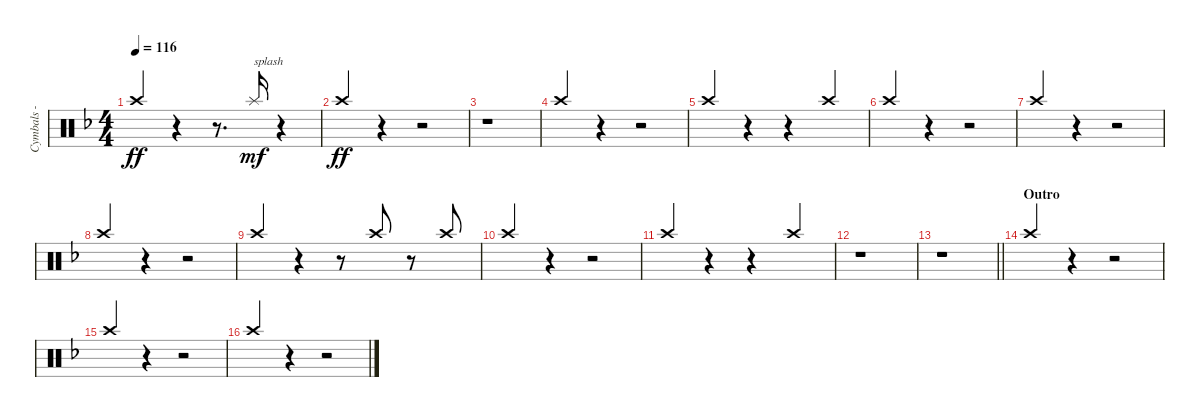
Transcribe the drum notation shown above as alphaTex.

\track ("Cymbals - crash" "Cymbals - ") {instrument percussion}
\staff {score}
\articulation defaults
\ts (4 4)
\tempo 116
\clef neutral
\ks f "Crash high (hit)".4{dy ff beam Up}
r.4 r.8{d} "Splash (hit)".16{txt "splash" dy mf beam Up} r.4 |
"Crash high (hit)".4{dy ff beam Up} r.4 r.2 |
r.1 |
"Crash high (hit)".4{beam Up} r.4 r.2 |
"Crash high (hit)".4{beam Up beam merge} r.4 r.4 "Crash high (hit)".4{beam Up} |
"Crash high (hit)".4{beam Up} r.4 r.2 |
"Crash high (hit)".4{beam Up} r.4 r.2 |
"Crash high (hit)".4{beam Up} r.4 r.2 |
"Crash high (hit)".4{beam Up} r.4 r.8 "Crash high (hit)".8{beam Up} r.8 "Crash high (hit)".8{beam Up} |
"Crash high (hit)".4{beam Up} r.4 r.2 |
"Crash high (hit)".4{beam Up beam merge} r.4 r.4 "Crash high (hit)".4{beam Up} |
r.1 |
\barLineRight lightlight
r.1 |
\section ("" "Outro")
"Crash high (hit)".4{beam Up} r.4 r.2 |
"Crash high (hit)".4{beam Up} r.4 r.2 |
"Crash high (hit)".4{beam Up} r.4 r.2
